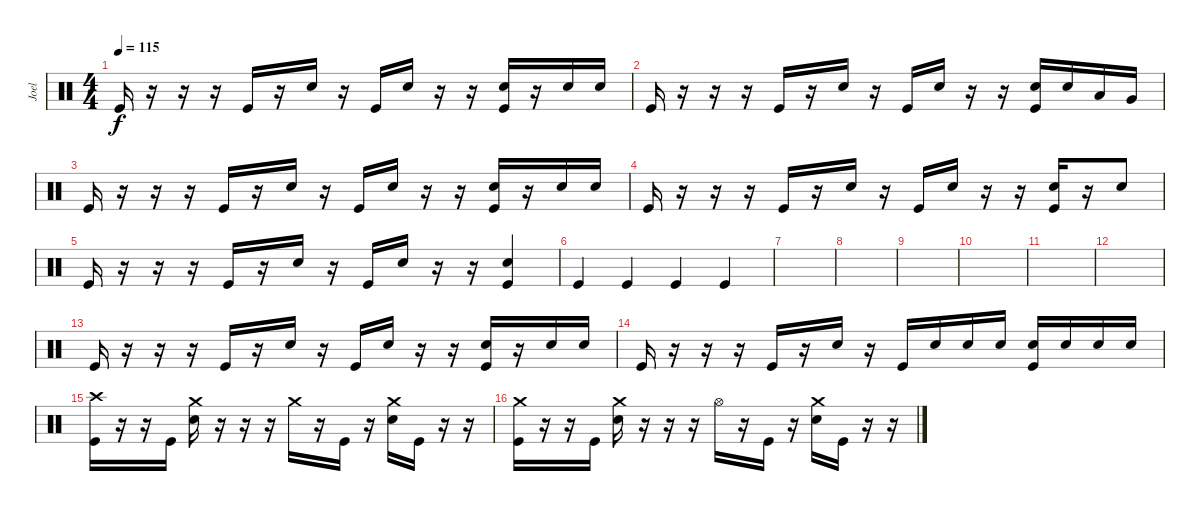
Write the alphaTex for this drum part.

\track ("Joel" "Joel") {instrument percussion}
\staff {score}
\articulation defaults
\ts (4 4)
\tempo 115
\clef neutral
\ks c "Kick (hit)".16{dy f}
r.16 r.16 r.16 "Kick (hit)".16 r.16 "Electric Snare (hit)".16 r.16 "Kick (hit)".16 "Electric Snare (hit)".16 r.16 r.16 ("Electric Snare (hit)" "Kick (hit)").16 r.16 "Electric Snare (hit)".16 "Electric Snare (hit)".16 |
"Kick (hit)".16 r.16 r.16 r.16 "Kick (hit)".16 r.16 "Electric Snare (hit)".16 r.16 "Kick (hit)".16 "Electric Snare (hit)".16 r.16 r.16 ("Electric Snare (hit)" "Kick (hit)").16 "Electric Snare (hit)".16 "Low Tom (hit)".16 "Very Low Tom (hit)".16 |
"Kick (hit)".16 r.16 r.16 r.16 "Kick (hit)".16 r.16 "Electric Snare (hit)".16 r.16 "Kick (hit)".16 "Electric Snare (hit)".16 r.16 r.16 ("Electric Snare (hit)" "Kick (hit)").16 r.16 "Electric Snare (hit)".16 "Electric Snare (hit)".16 |
"Kick (hit)".16 r.16 r.16 r.16 "Kick (hit)".16 r.16 "Electric Snare (hit)".16 r.16 "Kick (hit)".16 "Electric Snare (hit)".16 r.16 r.16 ("Electric Snare (hit)" "Kick (hit)").16 r.16 "Electric Snare (hit)".8 |
"Kick (hit)".16 r.16 r.16 r.16 "Kick (hit)".16 r.16 "Electric Snare (hit)".16 r.16 "Kick (hit)".16 "Electric Snare (hit)".16 r.16 r.16 ("Electric Snare (hit)" "Kick (hit)").4 |
"Kick (hit)".4 "Kick (hit)".4 "Kick (hit)".4 "Kick (hit)".4 |
|
|
|
|
|
|
"Kick (hit)".16 r.16 r.16 r.16 "Kick (hit)".16 r.16 "Electric Snare (hit)".16 r.16 "Kick (hit)".16 "Electric Snare (hit)".16 r.16 r.16 ("Electric Snare (hit)" "Kick (hit)").16 r.16 "Electric Snare (hit)".16 "Electric Snare (hit)".16 |
"Kick (hit)".16 r.16 r.16 r.16 "Kick (hit)".16 r.16 "Electric Snare (hit)".16 r.16 "Kick (hit)".16 "Electric Snare (hit)".16 "Electric Snare (hit)".16 "Electric Snare (hit)".16 ("Electric Snare (hit)" "Kick (hit)").16 "Electric Snare (hit)".16 "Electric Snare (hit)".16 "Electric Snare (hit)".16 |
("Crash high (hit)" "Kick (hit)").16 r.16 r.16 "Kick (hit)".16 ("Crash medium (hit)" "Electric Snare (hit)").16 r.16 r.16 r.16 "Crash medium (hit)".16 r.16 "Kick (hit)".16 r.16 ("Crash medium (hit)" "Electric Snare (hit)").16 "Kick (hit)".16 r.16 r.16 |
("Crash medium (hit)" "Kick (hit)").16 r.16 r.16 "Kick (hit)".16 ("Crash medium (hit)" "Electric Snare (hit)").16 r.16 r.16 r.16 "Hi-Hat (open)".16 r.16 "Kick (hit)".16 r.16 ("Crash medium (hit)" "Electric Snare (hit)").16 "Kick (hit)".16 r.16 r.16
